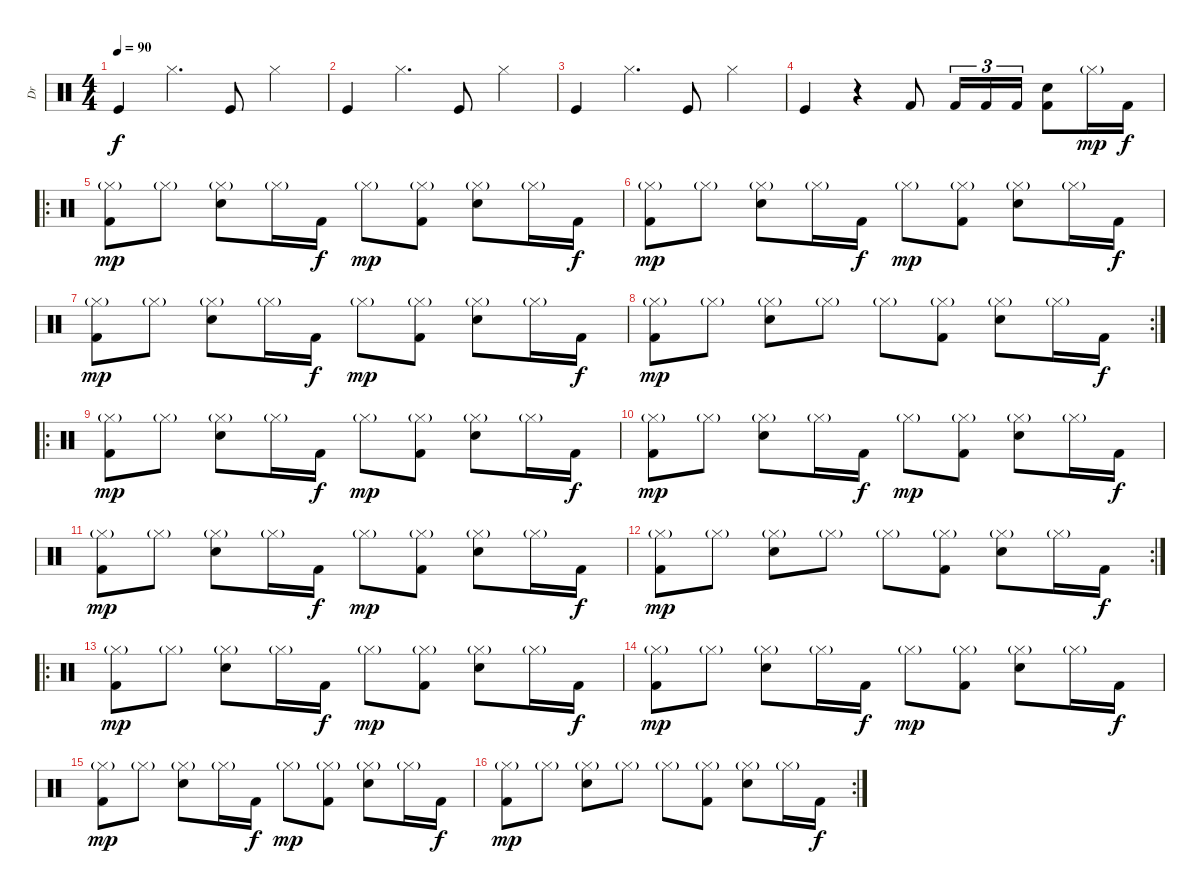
\track ("Dr" "Dr") {instrument percussion}
\staff {score}
\articulation defaults
\ts (4 4)
\tempo 90
\clef neutral
\ks c "Kick (hit)".4{dy f} "Hi-Hat (closed)".4{d} "Kick (hit)".8 "Hi-Hat (closed)".4
|
"Kick (hit)".4 "Hi-Hat (closed)".4{d} "Kick (hit)".8 "Hi-Hat (closed)".4 |
"Kick (hit)".4 "Hi-Hat (closed)".4{d} "Kick (hit)".8 "Hi-Hat (closed)".4 |
"Kick (hit)".4 r.4 "Kick (hit) 2".8 "Kick (hit) 2".16{tu (3 2)} "Kick (hit) 2".16{tu (3 2)} "Kick (hit) 2".16{tu (3 2)} ("Electric Snare (hit)" "Kick (hit) 2").8 "Hi-Hat (closed)"{g}.16{dy mp} "Kick (hit) 2".16{dy f} |
\ro
("Hi-Hat (closed)"{g} "Kick (hit) 2").8{dy mp} "Hi-Hat (closed)"{g}.8 ("Hi-Hat (closed)"{g} "Electric Snare (hit)").8 "Hi-Hat (closed)"{g}.16 "Kick (hit) 2".16{dy f} "Hi-Hat (closed)"{g}.8{dy mp} ("Hi-Hat (closed)"{g} "Kick (hit) 2").8 ("Hi-Hat (closed)"{g} "Electric Snare (hit)").8 "Hi-Hat (closed)"{g}.16 "Kick (hit) 2".16{dy f} |
("Hi-Hat (closed)"{g} "Kick (hit) 2").8{dy mp} "Hi-Hat (closed)"{g}.8 ("Hi-Hat (closed)"{g} "Electric Snare (hit)").8 "Hi-Hat (closed)"{g}.16 "Kick (hit) 2".16{dy f} "Hi-Hat (closed)"{g}.8{dy mp} ("Hi-Hat (closed)"{g} "Kick (hit) 2").8 ("Hi-Hat (closed)"{g} "Electric Snare (hit)").8 "Hi-Hat (closed)"{g}.16 "Kick (hit) 2".16{dy f} |
("Hi-Hat (closed)"{g} "Kick (hit) 2").8{dy mp} "Hi-Hat (closed)"{g}.8 ("Hi-Hat (closed)"{g} "Electric Snare (hit)").8 "Hi-Hat (closed)"{g}.16 "Kick (hit) 2".16{dy f} "Hi-Hat (closed)"{g}.8{dy mp} ("Hi-Hat (closed)"{g} "Kick (hit) 2").8 ("Hi-Hat (closed)"{g} "Electric Snare (hit)").8 "Hi-Hat (closed)"{g}.16 "Kick (hit) 2".16{dy f} |
\rc 2
("Hi-Hat (closed)"{g} "Kick (hit) 2").8{dy mp} "Hi-Hat (closed)"{g}.8 ("Hi-Hat (closed)"{g} "Electric Snare (hit)").8 "Hi-Hat (closed)"{g}.8 "Hi-Hat (closed)"{g}.8 ("Hi-Hat (closed)"{g} "Kick (hit) 2").8 ("Hi-Hat (closed)"{g} "Electric Snare (hit)").8 "Hi-Hat (closed)"{g}.16 "Kick (hit) 2".16{dy f} |
\ro
("Hi-Hat (closed)"{g} "Kick (hit) 2").8{dy mp} "Hi-Hat (closed)"{g}.8 ("Hi-Hat (closed)"{g} "Electric Snare (hit)").8 "Hi-Hat (closed)"{g}.16 "Kick (hit) 2".16{dy f} "Hi-Hat (closed)"{g}.8{dy mp} ("Hi-Hat (closed)"{g} "Kick (hit) 2").8 ("Hi-Hat (closed)"{g} "Electric Snare (hit)").8 "Hi-Hat (closed)"{g}.16 "Kick (hit) 2".16{dy f} |
("Hi-Hat (closed)"{g} "Kick (hit) 2").8{dy mp} "Hi-Hat (closed)"{g}.8 ("Hi-Hat (closed)"{g} "Electric Snare (hit)").8 "Hi-Hat (closed)"{g}.16 "Kick (hit) 2".16{dy f} "Hi-Hat (closed)"{g}.8{dy mp} ("Hi-Hat (closed)"{g} "Kick (hit) 2").8 ("Hi-Hat (closed)"{g} "Electric Snare (hit)").8 "Hi-Hat (closed)"{g}.16 "Kick (hit) 2".16{dy f} |
("Hi-Hat (closed)"{g} "Kick (hit) 2").8{dy mp} "Hi-Hat (closed)"{g}.8 ("Hi-Hat (closed)"{g} "Electric Snare (hit)").8 "Hi-Hat (closed)"{g}.16 "Kick (hit) 2".16{dy f} "Hi-Hat (closed)"{g}.8{dy mp} ("Hi-Hat (closed)"{g} "Kick (hit) 2").8 ("Hi-Hat (closed)"{g} "Electric Snare (hit)").8 "Hi-Hat (closed)"{g}.16 "Kick (hit) 2".16{dy f} |
\rc 2
("Hi-Hat (closed)"{g} "Kick (hit) 2").8{dy mp} "Hi-Hat (closed)"{g}.8 ("Hi-Hat (closed)"{g} "Electric Snare (hit)").8 "Hi-Hat (closed)"{g}.8 "Hi-Hat (closed)"{g}.8 ("Hi-Hat (closed)"{g} "Kick (hit) 2").8 ("Hi-Hat (closed)"{g} "Electric Snare (hit)").8 "Hi-Hat (closed)"{g}.16 "Kick (hit) 2".16{dy f} |
\ro
("Hi-Hat (closed)"{g} "Kick (hit) 2").8{dy mp} "Hi-Hat (closed)"{g}.8 ("Hi-Hat (closed)"{g} "Electric Snare (hit)").8 "Hi-Hat (closed)"{g}.16 "Kick (hit) 2".16{dy f} "Hi-Hat (closed)"{g}.8{dy mp} ("Hi-Hat (closed)"{g} "Kick (hit) 2").8 ("Hi-Hat (closed)"{g} "Electric Snare (hit)").8 "Hi-Hat (closed)"{g}.16 "Kick (hit) 2".16{dy f} |
("Hi-Hat (closed)"{g} "Kick (hit) 2").8{dy mp} "Hi-Hat (closed)"{g}.8 ("Hi-Hat (closed)"{g} "Electric Snare (hit)").8 "Hi-Hat (closed)"{g}.16 "Kick (hit) 2".16{dy f} "Hi-Hat (closed)"{g}.8{dy mp} ("Hi-Hat (closed)"{g} "Kick (hit) 2").8 ("Hi-Hat (closed)"{g} "Electric Snare (hit)").8 "Hi-Hat (closed)"{g}.16 "Kick (hit) 2".16{dy f} |
("Hi-Hat (closed)"{g} "Kick (hit) 2").8{dy mp} "Hi-Hat (closed)"{g}.8 ("Hi-Hat (closed)"{g} "Electric Snare (hit)").8 "Hi-Hat (closed)"{g}.16 "Kick (hit) 2".16{dy f} "Hi-Hat (closed)"{g}.8{dy mp} ("Hi-Hat (closed)"{g} "Kick (hit) 2").8 ("Hi-Hat (closed)"{g} "Electric Snare (hit)").8 "Hi-Hat (closed)"{g}.16 "Kick (hit) 2".16{dy f} |
\rc 2
("Hi-Hat (closed)"{g} "Kick (hit) 2").8{dy mp} "Hi-Hat (closed)"{g}.8 ("Hi-Hat (closed)"{g} "Electric Snare (hit)").8 "Hi-Hat (closed)"{g}.8 "Hi-Hat (closed)"{g}.8 ("Hi-Hat (closed)"{g} "Kick (hit) 2").8 ("Hi-Hat (closed)"{g} "Electric Snare (hit)").8 "Hi-Hat (closed)"{g}.16 "Kick (hit) 2".16{dy f}
